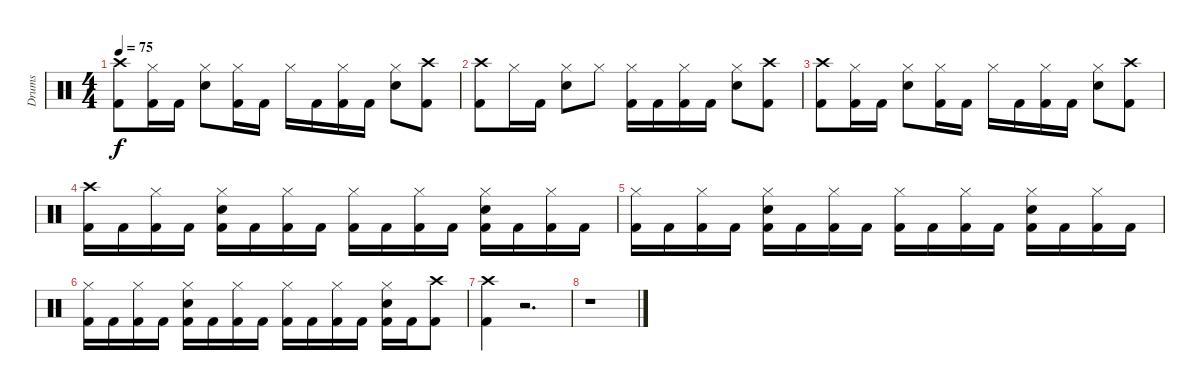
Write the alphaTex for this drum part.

\track ("Drums" "Drums") {instrument percussion}
\staff {score}
\articulation defaults
\ts (4 4)
\tempo 75
\clef neutral
\ks c
("Crash high (hit)" "Kick (hit) 2").8{dy f} ("Hi-Hat (closed)" "Kick (hit) 2").16 "Kick (hit) 2".16 ("Hi-Hat (closed)" "Electric Snare (hit)").8 ("Hi-Hat (closed)" "Kick (hit) 2").16 "Kick (hit) 2".16 "Hi-Hat (closed)".16 "Kick (hit) 2".16 ("Hi-Hat (closed)" "Kick (hit) 2").16 "Kick (hit) 2".16 ("Hi-Hat (closed)" "Electric Snare (hit)").8 ("Crash high (hit)" "Kick (hit) 2").8 |
("Crash high (hit)" "Kick (hit) 2").8 "Hi-Hat (closed)".16 "Kick (hit) 2".16 ("Hi-Hat (closed)" "Electric Snare (hit)").8 "Hi-Hat (closed)".8 ("Hi-Hat (closed)" "Kick (hit) 2").16 "Kick (hit) 2".16 ("Hi-Hat (closed)" "Kick (hit) 2").16 "Kick (hit) 2".16 ("Hi-Hat (closed)" "Electric Snare (hit)").8 ("Crash high (hit)" "Kick (hit) 2").8 |
("Crash high (hit)" "Kick (hit) 2").8 ("Hi-Hat (closed)" "Kick (hit) 2").16 "Kick (hit) 2".16 ("Hi-Hat (closed)" "Electric Snare (hit)").8 ("Hi-Hat (closed)" "Kick (hit) 2").16 "Kick (hit) 2".16 "Hi-Hat (closed)".16 "Kick (hit) 2".16 ("Hi-Hat (closed)" "Kick (hit) 2").16 "Kick (hit) 2".16 ("Hi-Hat (closed)" "Electric Snare (hit)").8 ("Crash high (hit)" "Kick (hit) 2").8 |
("Crash high (hit)" "Kick (hit) 2").16 "Kick (hit) 2".16 ("Hi-Hat (closed)" "Kick (hit) 2").16 "Kick (hit) 2".16 ("Hi-Hat (closed)" "Electric Snare (hit)" "Kick (hit) 2").16 "Kick (hit) 2".16 ("Hi-Hat (closed)" "Kick (hit) 2").16 "Kick (hit) 2".16 ("Hi-Hat (closed)" "Kick (hit) 2").16 "Kick (hit) 2".16 ("Hi-Hat (closed)" "Kick (hit) 2").16 "Kick (hit) 2".16 ("Hi-Hat (closed)" "Electric Snare (hit)" "Kick (hit) 2").16 "Kick (hit) 2".16 ("Hi-Hat (closed)" "Kick (hit) 2").16 "Kick (hit) 2".16 |
("Hi-Hat (closed)" "Kick (hit) 2").16 "Kick (hit) 2".16 ("Hi-Hat (closed)" "Kick (hit) 2").16 "Kick (hit) 2".16 ("Hi-Hat (closed)" "Electric Snare (hit)" "Kick (hit) 2").16 "Kick (hit) 2".16 ("Hi-Hat (closed)" "Kick (hit) 2").16 "Kick (hit) 2".16 ("Hi-Hat (closed)" "Kick (hit) 2").16 "Kick (hit) 2".16 ("Hi-Hat (closed)" "Kick (hit) 2").16 "Kick (hit) 2".16 ("Hi-Hat (closed)" "Electric Snare (hit)" "Kick (hit) 2").16 "Kick (hit) 2".16 ("Hi-Hat (closed)" "Kick (hit) 2").16 "Kick (hit) 2".16 |
("Hi-Hat (closed)" "Kick (hit) 2").16 "Kick (hit) 2".16 ("Hi-Hat (closed)" "Kick (hit) 2").16 "Kick (hit) 2".16 ("Hi-Hat (closed)" "Electric Snare (hit)" "Kick (hit) 2").16 "Kick (hit) 2".16 ("Hi-Hat (closed)" "Kick (hit) 2").16 "Kick (hit) 2".16 ("Hi-Hat (closed)" "Kick (hit) 2").16 "Kick (hit) 2".16 ("Hi-Hat (closed)" "Kick (hit) 2").16 "Kick (hit) 2".16 ("Hi-Hat (closed)" "Electric Snare (hit)" "Kick (hit) 2").16 "Kick (hit) 2".16 ("Crash high (hit)" "Kick (hit) 2").8 |
("Crash high (hit)" "Kick (hit) 2").4 r.2{d} |
r.1
